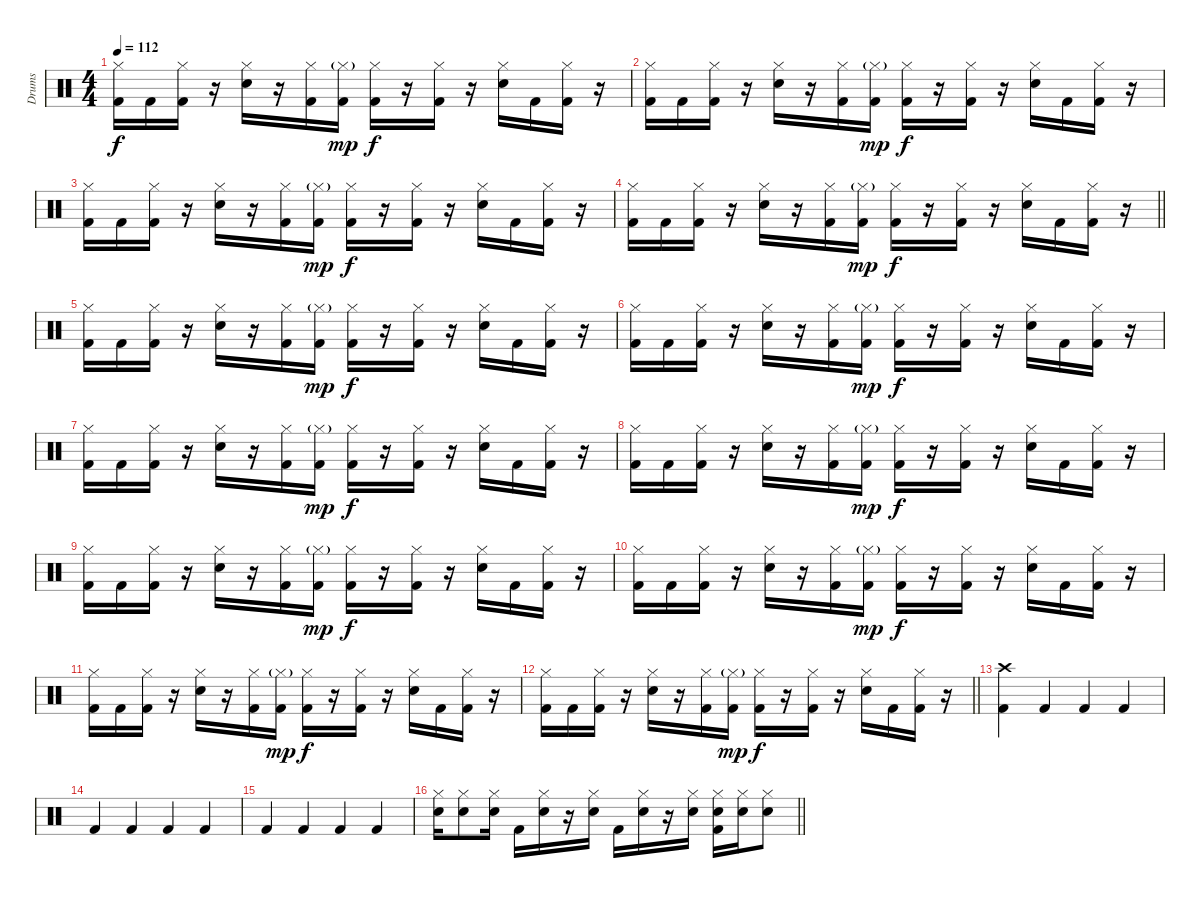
\track ("Drums" "Drums") {instrument percussion}
\staff {score}
\articulation defaults
\ts (4 4)
\tempo 112
\clef neutral
\ks c
("Hi-Hat (closed)" "Kick (hit) 2").16{dy f} "Kick (hit) 2".16 ("Hi-Hat (closed)" "Kick (hit) 2").16 r.16 ("Hi-Hat (closed)" "Electric Snare (hit)").16 r.16 ("Hi-Hat (closed)" "Kick (hit) 2").16 ("Hi-Hat (closed)"{g} "Kick (hit) 2").16{dy mp} ("Hi-Hat (closed)" "Kick (hit) 2").16{dy f} r.16 ("Hi-Hat (closed)" "Kick (hit) 2").16 r.16 ("Hi-Hat (closed)" "Electric Snare (hit)").16 "Kick (hit) 2".16 ("Hi-Hat (closed)" "Kick (hit) 2").16 r.16 |
("Hi-Hat (closed)" "Kick (hit) 2").16 "Kick (hit) 2".16 ("Hi-Hat (closed)" "Kick (hit) 2").16 r.16 ("Hi-Hat (closed)" "Electric Snare (hit)").16 r.16 ("Hi-Hat (closed)" "Kick (hit) 2").16 ("Hi-Hat (closed)"{g} "Kick (hit) 2").16{dy mp} ("Hi-Hat (closed)" "Kick (hit) 2").16{dy f} r.16 ("Hi-Hat (closed)" "Kick (hit) 2").16 r.16 ("Hi-Hat (closed)" "Electric Snare (hit)").16 "Kick (hit) 2".16 ("Hi-Hat (closed)" "Kick (hit) 2").16 r.16 |
("Hi-Hat (closed)" "Kick (hit) 2").16 "Kick (hit) 2".16 ("Hi-Hat (closed)" "Kick (hit) 2").16 r.16 ("Hi-Hat (closed)" "Electric Snare (hit)").16 r.16 ("Hi-Hat (closed)" "Kick (hit) 2").16 ("Hi-Hat (closed)"{g} "Kick (hit) 2").16{dy mp} ("Hi-Hat (closed)" "Kick (hit) 2").16{dy f} r.16 ("Hi-Hat (closed)" "Kick (hit) 2").16 r.16 ("Hi-Hat (closed)" "Electric Snare (hit)").16 "Kick (hit) 2".16 ("Hi-Hat (closed)" "Kick (hit) 2").16 r.16 |
\barLineRight lightlight
("Hi-Hat (closed)" "Kick (hit) 2").16 "Kick (hit) 2".16 ("Hi-Hat (closed)" "Kick (hit) 2").16 r.16 ("Hi-Hat (closed)" "Electric Snare (hit)").16 r.16 ("Hi-Hat (closed)" "Kick (hit) 2").16 ("Hi-Hat (closed)"{g} "Kick (hit) 2").16{dy mp} ("Hi-Hat (closed)" "Kick (hit) 2").16{dy f} r.16 ("Hi-Hat (closed)" "Kick (hit) 2").16 r.16 ("Hi-Hat (closed)" "Electric Snare (hit)").16 "Kick (hit) 2".16 ("Hi-Hat (closed)" "Kick (hit) 2").16 r.16 |
("Hi-Hat (closed)" "Kick (hit) 2").16 "Kick (hit) 2".16 ("Hi-Hat (closed)" "Kick (hit) 2").16 r.16 ("Hi-Hat (closed)" "Electric Snare (hit)").16 r.16 ("Hi-Hat (closed)" "Kick (hit) 2").16 ("Hi-Hat (closed)"{g} "Kick (hit) 2").16{dy mp} ("Hi-Hat (closed)" "Kick (hit) 2").16{dy f} r.16 ("Hi-Hat (closed)" "Kick (hit) 2").16 r.16 ("Hi-Hat (closed)" "Electric Snare (hit)").16 "Kick (hit) 2".16 ("Hi-Hat (closed)" "Kick (hit) 2").16 r.16 |
("Hi-Hat (closed)" "Kick (hit) 2").16 "Kick (hit) 2".16 ("Hi-Hat (closed)" "Kick (hit) 2").16 r.16 ("Hi-Hat (closed)" "Electric Snare (hit)").16 r.16 ("Hi-Hat (closed)" "Kick (hit) 2").16 ("Hi-Hat (closed)"{g} "Kick (hit) 2").16{dy mp} ("Hi-Hat (closed)" "Kick (hit) 2").16{dy f} r.16 ("Hi-Hat (closed)" "Kick (hit) 2").16 r.16 ("Hi-Hat (closed)" "Electric Snare (hit)").16 "Kick (hit) 2".16 ("Hi-Hat (closed)" "Kick (hit) 2").16 r.16 |
("Hi-Hat (closed)" "Kick (hit) 2").16 "Kick (hit) 2".16 ("Hi-Hat (closed)" "Kick (hit) 2").16 r.16 ("Hi-Hat (closed)" "Electric Snare (hit)").16 r.16 ("Hi-Hat (closed)" "Kick (hit) 2").16 ("Hi-Hat (closed)"{g} "Kick (hit) 2").16{dy mp} ("Hi-Hat (closed)" "Kick (hit) 2").16{dy f} r.16 ("Hi-Hat (closed)" "Kick (hit) 2").16 r.16 ("Hi-Hat (closed)" "Electric Snare (hit)").16 "Kick (hit) 2".16 ("Hi-Hat (closed)" "Kick (hit) 2").16 r.16 |
("Hi-Hat (closed)" "Kick (hit) 2").16 "Kick (hit) 2".16 ("Hi-Hat (closed)" "Kick (hit) 2").16 r.16 ("Hi-Hat (closed)" "Electric Snare (hit)").16 r.16 ("Hi-Hat (closed)" "Kick (hit) 2").16 ("Hi-Hat (closed)"{g} "Kick (hit) 2").16{dy mp} ("Hi-Hat (closed)" "Kick (hit) 2").16{dy f} r.16 ("Hi-Hat (closed)" "Kick (hit) 2").16 r.16 ("Hi-Hat (closed)" "Electric Snare (hit)").16 "Kick (hit) 2".16 ("Hi-Hat (closed)" "Kick (hit) 2").16 r.16 |
("Hi-Hat (closed)" "Kick (hit) 2").16 "Kick (hit) 2".16 ("Hi-Hat (closed)" "Kick (hit) 2").16 r.16 ("Hi-Hat (closed)" "Electric Snare (hit)").16 r.16 ("Hi-Hat (closed)" "Kick (hit) 2").16 ("Hi-Hat (closed)"{g} "Kick (hit) 2").16{dy mp} ("Hi-Hat (closed)" "Kick (hit) 2").16{dy f} r.16 ("Hi-Hat (closed)" "Kick (hit) 2").16 r.16 ("Hi-Hat (closed)" "Electric Snare (hit)").16 "Kick (hit) 2".16 ("Hi-Hat (closed)" "Kick (hit) 2").16 r.16 |
("Hi-Hat (closed)" "Kick (hit) 2").16 "Kick (hit) 2".16 ("Hi-Hat (closed)" "Kick (hit) 2").16 r.16 ("Hi-Hat (closed)" "Electric Snare (hit)").16 r.16 ("Hi-Hat (closed)" "Kick (hit) 2").16 ("Hi-Hat (closed)"{g} "Kick (hit) 2").16{dy mp} ("Hi-Hat (closed)" "Kick (hit) 2").16{dy f} r.16 ("Hi-Hat (closed)" "Kick (hit) 2").16 r.16 ("Hi-Hat (closed)" "Electric Snare (hit)").16 "Kick (hit) 2".16 ("Hi-Hat (closed)" "Kick (hit) 2").16 r.16 |
("Hi-Hat (closed)" "Kick (hit) 2").16 "Kick (hit) 2".16 ("Hi-Hat (closed)" "Kick (hit) 2").16 r.16 ("Hi-Hat (closed)" "Electric Snare (hit)").16 r.16 ("Hi-Hat (closed)" "Kick (hit) 2").16 ("Hi-Hat (closed)"{g} "Kick (hit) 2").16{dy mp} ("Hi-Hat (closed)" "Kick (hit) 2").16{dy f} r.16 ("Hi-Hat (closed)" "Kick (hit) 2").16 r.16 ("Hi-Hat (closed)" "Electric Snare (hit)").16 "Kick (hit) 2".16 ("Hi-Hat (closed)" "Kick (hit) 2").16 r.16 |
\barLineRight lightlight
("Hi-Hat (closed)" "Kick (hit) 2").16 "Kick (hit) 2".16 ("Hi-Hat (closed)" "Kick (hit) 2").16 r.16 ("Hi-Hat (closed)" "Electric Snare (hit)").16 r.16 ("Hi-Hat (closed)" "Kick (hit) 2").16 ("Hi-Hat (closed)"{g} "Kick (hit) 2").16{dy mp} ("Hi-Hat (closed)" "Kick (hit) 2").16{dy f} r.16 ("Hi-Hat (closed)" "Kick (hit) 2").16 r.16 ("Hi-Hat (closed)" "Electric Snare (hit)").16 "Kick (hit) 2".16 ("Hi-Hat (closed)" "Kick (hit) 2").16 r.16 |
("Crash high (hit)" "Kick (hit) 2").4 "Kick (hit) 2".4 "Kick (hit) 2".4 "Kick (hit) 2".4 |
"Kick (hit) 2".4 "Kick (hit) 2".4 "Kick (hit) 2".4 "Kick (hit) 2".4 |
"Kick (hit) 2".4 "Kick (hit) 2".4 "Kick (hit) 2".4 "Kick (hit) 2".4 |
\barLineRight lightlight
("Hi-Hat (closed)" "Electric Snare (hit)").16 ("Hi-Hat (closed)" "Electric Snare (hit)").8 ("Hi-Hat (closed)" "Electric Snare (hit)").16 "Kick (hit) 2".16 ("Hi-Hat (closed)" "Electric Snare (hit)").16 r.16 ("Hi-Hat (closed)" "Electric Snare (hit)").16 "Kick (hit) 2".16 ("Hi-Hat (closed)" "Electric Snare (hit)").16 r.16 ("Hi-Hat (closed)" "Electric Snare (hit)").16 ("Hi-Hat (closed)" "Electric Snare (hit)" "Kick (hit) 2").16 ("Hi-Hat (closed)" "Electric Snare (hit)").16 ("Hi-Hat (closed)" "Electric Snare (hit)").8
